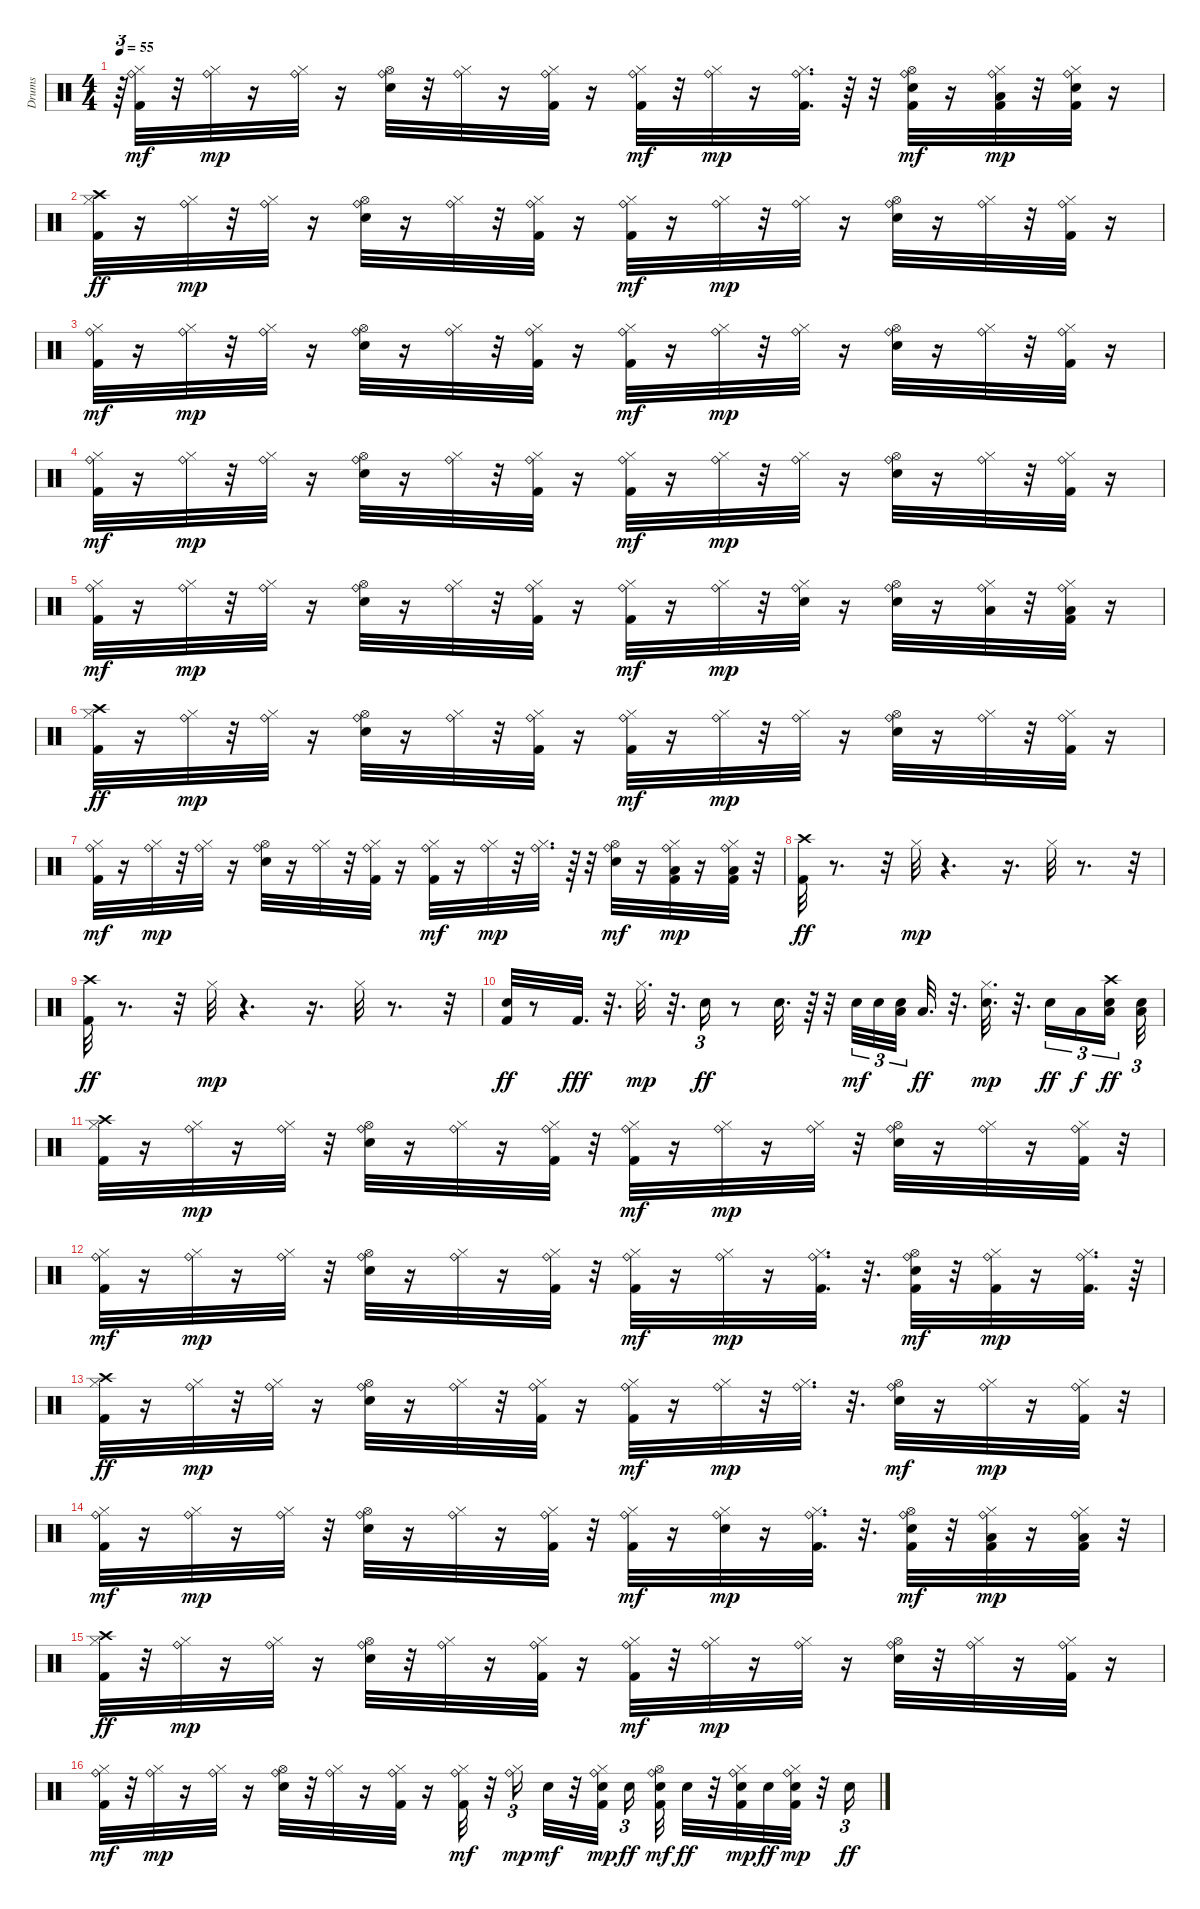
\track ("Drums" "Drums") {instrument percussion}
\staff {score}
\articulation defaults
\ts (4 4)
\tempo 55
\clef neutral
\ks c
r.64{tu (3 2) dy mp} ("Ride (bell)" "Kick (hit) 2" "Hi-Hat (closed)").32{dy mf} r.32 ("Ride (bell)" "Hi-Hat (closed)").32{dy mp} r.16 ("Ride (bell)" "Hi-Hat (closed)").32 r.16 ("Ride (bell)" "Snare (hit) 2" "Hi-Hat (open)").32 r.32 ("Ride (bell)" "Hi-Hat (closed)").32 r.16 ("Ride (bell)" "Kick (hit) 2" "Hi-Hat (closed)").32 r.16 ("Ride (bell)" "Kick (hit) 2" "Hi-Hat (closed)").32{dy mf} r.32 ("Ride (bell)" "Hi-Hat (closed)").32{dy mp} r.16 ("Ride (bell)" "Kick (hit) 2" "Hi-Hat (closed)").32{d} r.64 r.32 ("Kick (hit) 2" "Snare (hit) 2" "Hi-Hat (open)" "Ride (bell)").32{dy mf} r.16 ("Ride (bell)" "Kick (hit) 2" "Low Floor Tom (hit)" "Hi-Hat (closed)").32{dy mp} r.32 ("Ride (bell)" "Kick (hit) 2" "Snare (hit) 2" "Hi-Hat (closed)").32 r.16 |
("Kick (hit) 2" "Hi-Hat (closed)" "Crash high (hit)").32{dy ff} r.16 ("Ride (bell)" "Hi-Hat (closed)").32{dy mp} r.32 ("Ride (bell)" "Hi-Hat (closed)").32 r.16 ("Ride (bell)" "Snare (hit) 2" "Hi-Hat (open)").32 r.16 ("Ride (bell)" "Hi-Hat (closed)").32 r.32 ("Ride (bell)" "Kick (hit) 2" "Hi-Hat (closed)").32 r.16 ("Ride (bell)" "Kick (hit) 2" "Hi-Hat (closed)").32{dy mf} r.16 ("Ride (bell)" "Hi-Hat (closed)").32{dy mp} r.32 ("Ride (bell)" "Hi-Hat (closed)").32 r.16 ("Ride (bell)" "Snare (hit) 2" "Hi-Hat (open)").32 r.16 ("Ride (bell)" "Hi-Hat (closed)").32 r.32 ("Ride (bell)" "Kick (hit) 2" "Hi-Hat (closed)").32 r.16 |
("Ride (bell)" "Kick (hit) 2" "Hi-Hat (closed)").32{dy mf} r.16 ("Ride (bell)" "Hi-Hat (closed)").32{dy mp} r.32 ("Ride (bell)" "Hi-Hat (closed)").32 r.16 ("Ride (bell)" "Snare (hit) 2" "Hi-Hat (open)").32 r.16 ("Ride (bell)" "Hi-Hat (closed)").32 r.32 ("Ride (bell)" "Kick (hit) 2" "Hi-Hat (closed)").32 r.16 ("Ride (bell)" "Kick (hit) 2" "Hi-Hat (closed)").32{dy mf} r.16 ("Ride (bell)" "Hi-Hat (closed)").32{dy mp} r.32 ("Ride (bell)" "Hi-Hat (closed)").32 r.16 ("Ride (bell)" "Snare (hit) 2" "Hi-Hat (open)").32 r.16 ("Ride (bell)" "Hi-Hat (closed)").32 r.32 ("Ride (bell)" "Kick (hit) 2" "Hi-Hat (closed)").32 r.16 |
("Ride (bell)" "Kick (hit) 2" "Hi-Hat (closed)").32{dy mf} r.16 ("Ride (bell)" "Hi-Hat (closed)").32{dy mp} r.32 ("Ride (bell)" "Hi-Hat (closed)").32 r.16 ("Ride (bell)" "Snare (hit) 2" "Hi-Hat (open)").32 r.16 ("Ride (bell)" "Hi-Hat (closed)").32 r.32 ("Ride (bell)" "Kick (hit) 2" "Hi-Hat (closed)").32 r.16 ("Ride (bell)" "Kick (hit) 2" "Hi-Hat (closed)").32{dy mf} r.16 ("Ride (bell)" "Hi-Hat (closed)").32{dy mp} r.32 ("Ride (bell)" "Hi-Hat (closed)").32 r.16 ("Ride (bell)" "Snare (hit) 2" "Hi-Hat (open)").32 r.16 ("Ride (bell)" "Hi-Hat (closed)").32 r.32 ("Ride (bell)" "Kick (hit) 2" "Hi-Hat (closed)").32 r.16 |
("Ride (bell)" "Kick (hit) 2" "Hi-Hat (closed)").32{dy mf} r.16 ("Ride (bell)" "Hi-Hat (closed)").32{dy mp} r.32 ("Ride (bell)" "Hi-Hat (closed)").32 r.16 ("Ride (bell)" "Snare (hit) 2" "Hi-Hat (open)").32 r.16 ("Ride (bell)" "Hi-Hat (closed)").32 r.32 ("Ride (bell)" "Kick (hit) 2" "Hi-Hat (closed)").32 r.16 ("Ride (bell)" "Kick (hit) 2" "Hi-Hat (closed)").32{dy mf} r.16 ("Ride (bell)" "Hi-Hat (closed)").32{dy mp} r.32 ("Ride (bell)" "Snare (hit) 2" "Hi-Hat (closed)").32 r.16 ("Ride (bell)" "Snare (hit) 2" "Hi-Hat (open)").32 r.16 ("Ride (bell)" "Hi-Hat (closed)" "Low Floor Tom (hit)").32 r.32 ("Ride (bell)" "Kick (hit) 2" "Low Floor Tom (hit)" "Hi-Hat (closed)").32 r.16 |
("Kick (hit) 2" "Hi-Hat (closed)" "Crash high (hit)").32{dy ff} r.16 ("Ride (bell)" "Hi-Hat (closed)").32{dy mp} r.32 ("Ride (bell)" "Hi-Hat (closed)").32 r.16 ("Ride (bell)" "Snare (hit) 2" "Hi-Hat (open)").32 r.16 ("Ride (bell)" "Hi-Hat (closed)").32 r.32 ("Ride (bell)" "Kick (hit) 2" "Hi-Hat (closed)").32 r.16 ("Ride (bell)" "Kick (hit) 2" "Hi-Hat (closed)").32{dy mf} r.16 ("Ride (bell)" "Hi-Hat (closed)").32{dy mp} r.32 ("Ride (bell)" "Hi-Hat (closed)").32 r.16 ("Ride (bell)" "Snare (hit) 2" "Hi-Hat (open)").32 r.16 ("Ride (bell)" "Hi-Hat (closed)").32 r.32 ("Ride (bell)" "Kick (hit) 2" "Hi-Hat (closed)").32 r.16 |
("Ride (bell)" "Kick (hit) 2" "Hi-Hat (closed)").32{dy mf} r.16 ("Ride (bell)" "Hi-Hat (closed)").32{dy mp} r.32 ("Ride (bell)" "Hi-Hat (closed)").32 r.16 ("Ride (bell)" "Snare (hit) 2" "Hi-Hat (open)").32 r.16 ("Ride (bell)" "Hi-Hat (closed)").32 r.32 ("Ride (bell)" "Kick (hit) 2" "Hi-Hat (closed)").32 r.16 ("Ride (bell)" "Kick (hit) 2" "Hi-Hat (closed)").32{dy mf} r.16 ("Ride (bell)" "Hi-Hat (closed)").32{dy mp} r.32 ("Ride (bell)" "Hi-Hat (closed)").32{d} r.64 r.32 ("Snare (hit) 2" "Hi-Hat (open)" "Ride (bell)").32{dy mf} r.16 ("Ride (bell)" "Kick (hit) 2" "Low Floor Tom (hit)" "Hi-Hat (closed)").32{dy mp} r.16 ("Ride (bell)" "Kick (hit) 2" "Low Floor Tom (hit)" "Hi-Hat (closed)").32 r.32 |
("Kick (hit) 2" "Crash high (hit)").32{dy ff} r.8{d} r.32 "Hi-Hat (closed)".32{dy mp} r.4{d} r.16{d} "Hi-Hat (closed)".32 r.8{d} r.32 |
("Kick (hit) 2" "Crash high (hit)").32{dy ff} r.8{d} r.32 "Hi-Hat (closed)".32{dy mp} r.4{d} r.16{d} "Hi-Hat (closed)".32 r.8{d} r.32 |
("Kick (hit) 2" "Snare (hit) 2").32{dy ff} r.8 "Kick (hit) 2".32{d dy fff} r.32{d} "Hi-Hat (closed)".32{d dy mp} r.32{d} "Snare (hit) 2".16{tu (3 2) dy ff} r.8 "Snare (hit) 2".32{d} r.64 r.32 "Snare (hit) 2".32{tu (3 2) dy mf} "Snare (hit) 2".32{tu (3 2)} ("Snare (hit) 2" "Low Floor Tom (hit)").32{tu (3 2) beam splitsecondary} "Low Floor Tom (hit)".32{d dy ff} r.32{d} ("Snare (hit) 2" "Hi-Hat (closed)").32{d dy mp} r.32{d} "Snare (hit) 2".16{tu (3 2) dy ff} "Low Floor Tom (hit)".16{tu (3 2) dy f} ("Snare (hit) 2" "Crash high (hit)" "Low Floor Tom (hit)").16{tu (3 2) dy ff beam splitsecondary} ("Snare (hit) 2" "Low Floor Tom (hit)").32{tu (3 2)} |
("Kick (hit) 2" "Hi-Hat (closed)" "Crash high (hit)").32 r.16 ("Ride (bell)" "Hi-Hat (closed)").32{dy mp} r.16 ("Ride (bell)" "Hi-Hat (closed)").32 r.32 ("Ride (bell)" "Snare (hit) 2" "Hi-Hat (open)").32 r.16 ("Ride (bell)" "Hi-Hat (closed)").32 r.16 ("Ride (bell)" "Kick (hit) 2" "Hi-Hat (closed)").32 r.32 ("Ride (bell)" "Kick (hit) 2" "Hi-Hat (closed)").32{dy mf} r.16 ("Ride (bell)" "Hi-Hat (closed)").32{dy mp} r.16 ("Ride (bell)" "Hi-Hat (closed)").32 r.32 ("Ride (bell)" "Snare (hit) 2" "Hi-Hat (open)").32 r.16 ("Ride (bell)" "Hi-Hat (closed)").32 r.16 ("Ride (bell)" "Kick (hit) 2" "Hi-Hat (closed)").32 r.32 |
("Ride (bell)" "Kick (hit) 2" "Hi-Hat (closed)").32{dy mf} r.16 ("Ride (bell)" "Hi-Hat (closed)").32{dy mp} r.16 ("Ride (bell)" "Hi-Hat (closed)").32 r.32 ("Ride (bell)" "Snare (hit) 2" "Hi-Hat (open)").32 r.16 ("Ride (bell)" "Hi-Hat (closed)").32 r.16 ("Ride (bell)" "Kick (hit) 2" "Hi-Hat (closed)").32 r.32 ("Ride (bell)" "Kick (hit) 2" "Hi-Hat (closed)").32{dy mf} r.16 ("Ride (bell)" "Hi-Hat (closed)").32{dy mp} r.16 ("Ride (bell)" "Kick (hit) 2" "Hi-Hat (closed)").32{d} r.32{d} ("Kick (hit) 2" "Snare (hit) 2" "Hi-Hat (open)" "Ride (bell)").32{dy mf} r.32 ("Ride (bell)" "Kick (hit) 2" "Hi-Hat (closed)").32{dy mp} r.16 ("Ride (bell)" "Kick (hit) 2" "Hi-Hat (closed)").32{d} r.64 |
("Kick (hit) 2" "Hi-Hat (closed)" "Crash high (hit)").32{dy ff} r.16 ("Ride (bell)" "Hi-Hat (closed)").32{dy mp} r.32 ("Ride (bell)" "Hi-Hat (closed)").32 r.16 ("Ride (bell)" "Snare (hit) 2" "Hi-Hat (open)").32 r.16 ("Ride (bell)" "Hi-Hat (closed)").32 r.32 ("Ride (bell)" "Kick (hit) 2" "Hi-Hat (closed)").32 r.16 ("Ride (bell)" "Kick (hit) 2" "Hi-Hat (closed)").32{dy mf} r.16 ("Ride (bell)" "Hi-Hat (closed)").32{dy mp} r.32 ("Ride (bell)" "Hi-Hat (closed)").32{d} r.32{d} ("Snare (hit) 2" "Hi-Hat (open)" "Ride (bell)").32{dy mf} r.16 ("Ride (bell)" "Hi-Hat (closed)").32{dy mp} r.16 ("Ride (bell)" "Kick (hit) 2" "Hi-Hat (closed)").32 r.32 |
("Ride (bell)" "Kick (hit) 2" "Hi-Hat (closed)").32{dy mf} r.16 ("Ride (bell)" "Hi-Hat (closed)").32{dy mp} r.16 ("Ride (bell)" "Hi-Hat (closed)").32 r.32 ("Ride (bell)" "Snare (hit) 2" "Hi-Hat (open)").32 r.16 ("Ride (bell)" "Hi-Hat (closed)").32 r.16 ("Ride (bell)" "Kick (hit) 2" "Hi-Hat (closed)").32 r.32 ("Ride (bell)" "Kick (hit) 2" "Hi-Hat (closed)").32{dy mf} r.16 ("Ride (bell)" "Snare (hit) 2" "Hi-Hat (closed)").32{dy mp} r.16 ("Ride (bell)" "Kick (hit) 2" "Hi-Hat (closed)").32{d} r.32{d} ("Kick (hit) 2" "Snare (hit) 2" "Hi-Hat (open)" "Ride (bell)").32{dy mf} r.32 ("Ride (bell)" "Kick (hit) 2" "Low Floor Tom (hit)" "Hi-Hat (closed)").32{dy mp} r.16 ("Ride (bell)" "Kick (hit) 2" "Low Floor Tom (hit)" "Hi-Hat (closed)").32 r.32 |
("Kick (hit) 2" "Hi-Hat (closed)" "Crash high (hit)").32{dy ff} r.32 ("Ride (bell)" "Hi-Hat (closed)").32{dy mp} r.16 ("Ride (bell)" "Hi-Hat (closed)").32 r.16 ("Ride (bell)" "Snare (hit) 2" "Hi-Hat (open)").32 r.32 ("Ride (bell)" "Hi-Hat (closed)").32 r.16 ("Ride (bell)" "Kick (hit) 2" "Hi-Hat (closed)").32 r.16 ("Ride (bell)" "Kick (hit) 2" "Hi-Hat (closed)").32{dy mf} r.32 ("Ride (bell)" "Hi-Hat (closed)").32{dy mp} r.16 ("Ride (bell)" "Hi-Hat (closed)").32 r.16 ("Ride (bell)" "Snare (hit) 2" "Hi-Hat (open)").32 r.32 ("Ride (bell)" "Hi-Hat (closed)").32 r.16 ("Ride (bell)" "Kick (hit) 2" "Hi-Hat (closed)").32 r.16 |
("Ride (bell)" "Kick (hit) 2" "Hi-Hat (closed)").32{dy mf} r.32 ("Ride (bell)" "Hi-Hat (closed)").32{dy mp} r.16 ("Ride (bell)" "Hi-Hat (closed)").32 r.16 ("Ride (bell)" "Snare (hit) 2" "Hi-Hat (open)").32 r.32 ("Ride (bell)" "Hi-Hat (closed)").32 r.16 ("Ride (bell)" "Kick (hit) 2" "Hi-Hat (closed)").32 r.16 ("Ride (bell)" "Kick (hit) 2" "Hi-Hat (closed)").32{dy mf} r.32 ("Ride (bell)" "Hi-Hat (closed)").16{tu (3 2) dy mp} "Snare (hit) 2".32{dy mf} r.32 ("Ride (bell)" "Kick (hit) 2" "Snare (hit) 2" "Hi-Hat (closed)").32{dy mp beam splitsecondary} "Snare (hit) 2".16{tu (3 2) dy ff} ("Kick (hit) 2" "Snare (hit) 2" "Hi-Hat (open)" "Ride (bell)").32{dy mf} "Snare (hit) 2".32{dy ff} r.32 ("Ride (bell)" "Kick (hit) 2" "Snare (hit) 2" "Hi-Hat (closed)").32{dy mp} "Snare (hit) 2".32{dy ff} ("Ride (bell)" "Kick (hit) 2" "Snare (hit) 2" "Hi-Hat (closed)").32{dy mp} r.32 "Snare (hit) 2".16{tu (3 2) dy ff}
